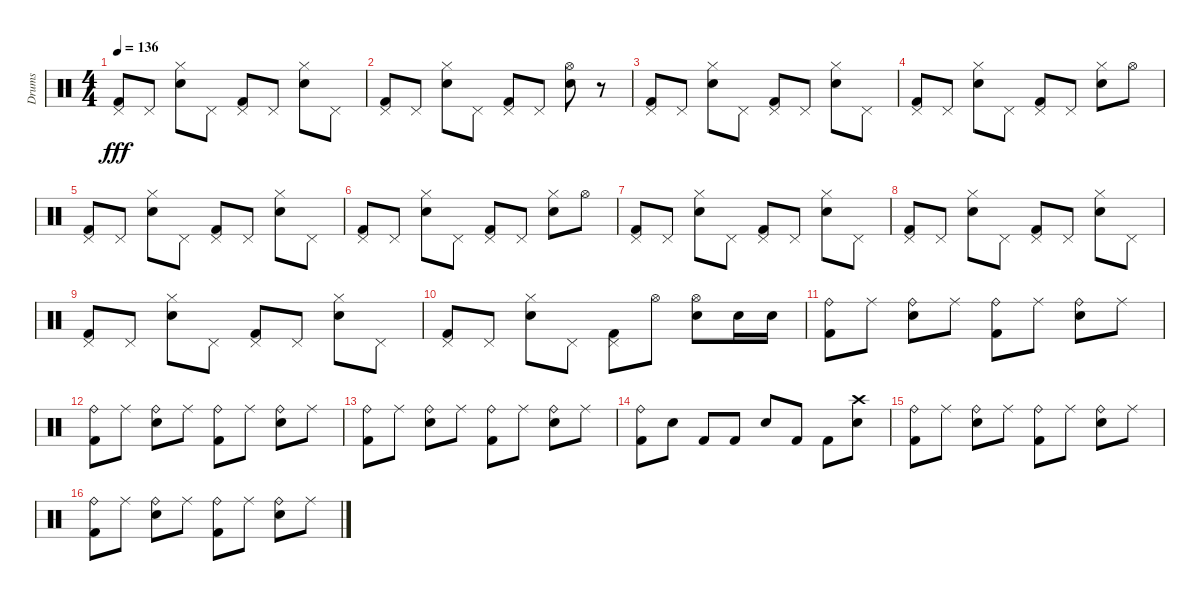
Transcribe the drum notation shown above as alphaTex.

\track ("Drums" "Drums") {instrument percussion}
\staff {score}
\articulation defaults
\ts (4 4)
\tempo 136
\clef neutral
\ks c
("Pedal Hi-Hat (hit)" "Kick (hit) 2").8{dy fff} "Pedal Hi-Hat (hit)".8 ("Hi-Hat (closed)" "Snare (hit) 2").8 "Pedal Hi-Hat (hit)".8 ("Pedal Hi-Hat (hit)" "Kick (hit) 2").8 "Pedal Hi-Hat (hit)".8 ("Hi-Hat (closed)" "Snare (hit) 2").8 "Pedal Hi-Hat (hit)".8 |
("Pedal Hi-Hat (hit)" "Kick (hit) 2").8 "Pedal Hi-Hat (hit)".8 ("Hi-Hat (closed)" "Snare (hit) 2").8 "Pedal Hi-Hat (hit)".8 ("Pedal Hi-Hat (hit)" "Kick (hit) 2").8 "Pedal Hi-Hat (hit)".8 ("Hi-Hat (open)" "Snare (hit) 2").8 r.8 |
("Pedal Hi-Hat (hit)" "Kick (hit) 2").8 "Pedal Hi-Hat (hit)".8 ("Hi-Hat (closed)" "Snare (hit) 2").8 "Pedal Hi-Hat (hit)".8 ("Pedal Hi-Hat (hit)" "Kick (hit) 2").8 "Pedal Hi-Hat (hit)".8 ("Hi-Hat (closed)" "Snare (hit) 2").8 "Pedal Hi-Hat (hit)".8 |
("Pedal Hi-Hat (hit)" "Kick (hit) 2").8 "Pedal Hi-Hat (hit)".8 ("Hi-Hat (closed)" "Snare (hit) 2").8 "Pedal Hi-Hat (hit)".8 ("Pedal Hi-Hat (hit)" "Kick (hit) 2").8 "Pedal Hi-Hat (hit)".8 ("Hi-Hat (closed)" "Snare (hit) 2").8 "Hi-Hat (open)".8 |
("Pedal Hi-Hat (hit)" "Kick (hit) 2").8 "Pedal Hi-Hat (hit)".8 ("Hi-Hat (closed)" "Snare (hit) 2").8 "Pedal Hi-Hat (hit)".8 ("Pedal Hi-Hat (hit)" "Kick (hit) 2").8 "Pedal Hi-Hat (hit)".8 ("Hi-Hat (closed)" "Snare (hit) 2").8 "Pedal Hi-Hat (hit)".8 |
("Pedal Hi-Hat (hit)" "Kick (hit) 2").8 "Pedal Hi-Hat (hit)".8 ("Hi-Hat (closed)" "Snare (hit) 2").8 "Pedal Hi-Hat (hit)".8 ("Pedal Hi-Hat (hit)" "Kick (hit) 2").8 "Pedal Hi-Hat (hit)".8 ("Hi-Hat (closed)" "Snare (hit) 2").8 "Hi-Hat (open)".8 |
("Pedal Hi-Hat (hit)" "Kick (hit) 2").8 "Pedal Hi-Hat (hit)".8 ("Hi-Hat (closed)" "Snare (hit) 2").8 "Pedal Hi-Hat (hit)".8 ("Pedal Hi-Hat (hit)" "Kick (hit) 2").8 "Pedal Hi-Hat (hit)".8 ("Hi-Hat (closed)" "Snare (hit) 2").8 "Pedal Hi-Hat (hit)".8 |
("Pedal Hi-Hat (hit)" "Kick (hit) 2").8 "Pedal Hi-Hat (hit)".8 ("Hi-Hat (closed)" "Snare (hit) 2").8 "Pedal Hi-Hat (hit)".8 ("Pedal Hi-Hat (hit)" "Kick (hit) 2").8 "Pedal Hi-Hat (hit)".8 ("Hi-Hat (closed)" "Snare (hit) 2").8 "Pedal Hi-Hat (hit)".8 |
("Pedal Hi-Hat (hit)" "Kick (hit) 2").8 "Pedal Hi-Hat (hit)".8 ("Hi-Hat (closed)" "Snare (hit) 2").8 "Pedal Hi-Hat (hit)".8 ("Pedal Hi-Hat (hit)" "Kick (hit) 2").8 "Pedal Hi-Hat (hit)".8 ("Hi-Hat (closed)" "Snare (hit) 2").8 "Pedal Hi-Hat (hit)".8 |
("Pedal Hi-Hat (hit)" "Kick (hit) 2").8 "Pedal Hi-Hat (hit)".8 ("Hi-Hat (closed)" "Snare (hit) 2").8 "Pedal Hi-Hat (hit)".8 ("Pedal Hi-Hat (hit)" "Kick (hit) 2").8 "Hi-Hat (open)".8 ("Hi-Hat (open)" "Snare (hit) 2").8 "Snare (hit) 2".16 "Snare (hit) 2".16 |
("Ride (bell)" "Kick (hit) 2").8 "Ride (middle)".8 ("Ride (bell)" "Snare (hit) 2").8 "Ride (middle)".8 ("Ride (bell)" "Kick (hit) 2").8 "Ride (middle)".8 ("Ride (bell)" "Snare (hit) 2").8 "Ride (middle)".8 |
("Ride (bell)" "Kick (hit) 2").8 "Ride (middle)".8 ("Ride (bell)" "Snare (hit) 2").8 "Ride (middle)".8 ("Ride (bell)" "Kick (hit) 2").8 "Ride (middle)".8 ("Ride (bell)" "Snare (hit) 2").8 "Ride (middle)".8 |
("Ride (bell)" "Kick (hit) 2").8 "Ride (middle)".8 ("Ride (bell)" "Snare (hit) 2").8 "Ride (middle)".8 ("Ride (bell)" "Kick (hit) 2").8 "Ride (middle)".8 ("Ride (bell)" "Snare (hit) 2").8 "Ride (middle)".8 |
("Ride (bell)" "Kick (hit) 2").8 "Snare (hit) 2".8 "Kick (hit) 2".8 "Kick (hit) 2".8 "Snare (hit) 2".8 "Kick (hit) 2".8 "Kick (hit) 2".8 ("Crash high (hit)" "Snare (hit) 2").8 |
("Ride (bell)" "Kick (hit) 2").8 "Ride (middle)".8 ("Ride (bell)" "Snare (hit) 2").8 "Ride (middle)".8 ("Ride (bell)" "Kick (hit) 2").8 "Ride (middle)".8 ("Ride (bell)" "Snare (hit) 2").8 "Ride (middle)".8 |
("Ride (bell)" "Kick (hit) 2").8 "Ride (middle)".8 ("Ride (bell)" "Snare (hit) 2").8 "Ride (middle)".8 ("Ride (bell)" "Kick (hit) 2").8 "Ride (middle)".8 ("Ride (bell)" "Snare (hit) 2").8 "Ride (middle)".8
